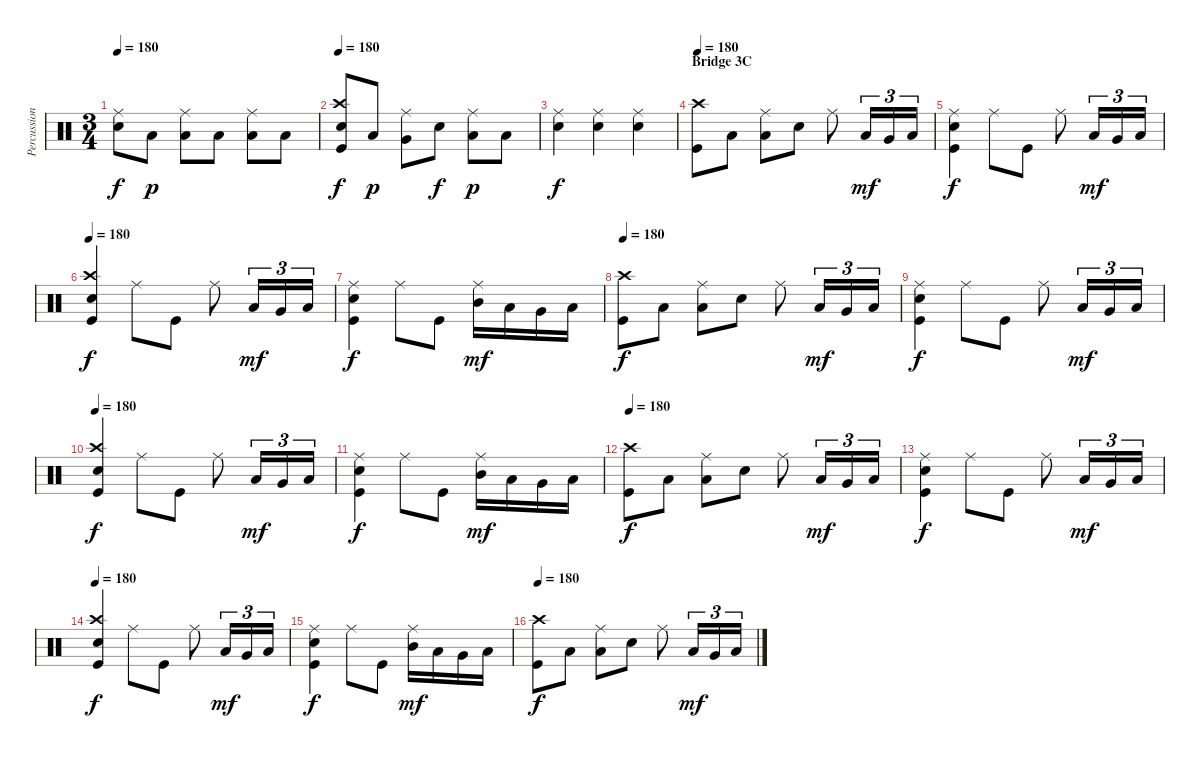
\track ("Percussion" "Percussion") {instrument percussion}
\staff {score}
\articulation defaults
\ts (3 4)
\tempo 180
\clef neutral
\ks c
("Ride (middle)" "Electric Snare (hit)").8{dy f} "Low Tom (hit)".8{dy p} ("Ride (middle)" "Low Floor Tom (hit)").8 "Low Floor Tom (hit)".8 ("Ride (middle)" "Low Floor Tom (hit)").8 "Low Floor Tom (hit)".8 |
\tempo 180
("Crash high (hit)" "Electric Snare (hit)" "Kick (hit)").8{dy f} "Low Tom (hit)".8{dy p} ("Ride (middle)" "Very Low Tom (hit)").8 "Electric Snare (hit)".8{dy f} ("Ride (middle)" "Low Floor Tom (hit)").8{dy p} "Low Floor Tom (hit)".8 |
("Ride (middle)" "Electric Snare (hit)").4{dy f} ("Ride (middle)" "Electric Snare (hit)").4 ("Ride (middle)" "Electric Snare (hit)").4 |
\section ("" "Bridge 3C")
\tempo 180
("Crash high (hit)" "Kick (hit)").8 "Low Floor Tom (hit)".8 ("Ride (middle)" "Low Floor Tom (hit)").8 "Electric Snare (hit)".8 "Ride (middle)".8 "Low Tom (hit)".16{tu (3 2) dy mf} "Very Low Tom (hit)".16{tu (3 2)} "Low Floor Tom (hit)".16{tu (3 2)} |
("Ride (middle)" "Electric Snare (hit)" "Kick (hit)").4{dy f} "Ride (middle)".8 "Kick (hit)".8 "Ride (middle)".8 "Low Tom (hit)".16{tu (3 2) dy mf} "Very Low Tom (hit)".16{tu (3 2)} "Low Floor Tom (hit)".16{tu (3 2)} |
\tempo 180
("Crash high (hit)" "Electric Snare (hit)" "Kick (hit)").4{dy f} "Ride (middle)".8 "Kick (hit)".8 "Ride (middle)".8 "Low Tom (hit)".16{tu (3 2) dy mf} "Very Low Tom (hit)".16{tu (3 2)} "Low Floor Tom (hit)".16{tu (3 2)} |
("Ride (middle)" "Electric Snare (hit)" "Kick (hit)").4{dy f} "Ride (middle)".8 "Kick (hit)".8 ("Ride (middle)" "Mid Tom (hit)").16{dy mf} "Low Tom (hit)".16 "Very Low Tom (hit)".16 "Low Floor Tom (hit)".16 |
\tempo 180
("Crash high (hit)" "Kick (hit)").8{dy f} "Low Floor Tom (hit)".8 ("Ride (middle)" "Low Floor Tom (hit)").8 "Electric Snare (hit)".8 "Ride (middle)".8 "Low Tom (hit)".16{tu (3 2) dy mf} "Very Low Tom (hit)".16{tu (3 2)} "Low Floor Tom (hit)".16{tu (3 2)} |
("Ride (middle)" "Electric Snare (hit)" "Kick (hit)").4{dy f} "Ride (middle)".8 "Kick (hit)".8 "Ride (middle)".8 "Low Tom (hit)".16{tu (3 2) dy mf} "Very Low Tom (hit)".16{tu (3 2)} "Low Floor Tom (hit)".16{tu (3 2)} |
\tempo 180
("Crash high (hit)" "Electric Snare (hit)" "Kick (hit)").4{dy f} "Ride (middle)".8 "Kick (hit)".8 "Ride (middle)".8 "Low Tom (hit)".16{tu (3 2) dy mf} "Very Low Tom (hit)".16{tu (3 2)} "Low Floor Tom (hit)".16{tu (3 2)} |
("Ride (middle)" "Electric Snare (hit)" "Kick (hit)").4{dy f} "Ride (middle)".8 "Kick (hit)".8 ("Ride (middle)" "Mid Tom (hit)").16{dy mf} "Low Tom (hit)".16 "Very Low Tom (hit)".16 "Low Floor Tom (hit)".16 |
\tempo 180
("Crash high (hit)" "Kick (hit)").8{dy f} "Low Floor Tom (hit)".8 ("Ride (middle)" "Low Floor Tom (hit)").8 "Electric Snare (hit)".8 "Ride (middle)".8 "Low Tom (hit)".16{tu (3 2) dy mf} "Very Low Tom (hit)".16{tu (3 2)} "Low Floor Tom (hit)".16{tu (3 2)} |
("Ride (middle)" "Electric Snare (hit)" "Kick (hit)").4{dy f} "Ride (middle)".8 "Kick (hit)".8 "Ride (middle)".8 "Low Tom (hit)".16{tu (3 2) dy mf} "Very Low Tom (hit)".16{tu (3 2)} "Low Floor Tom (hit)".16{tu (3 2)} |
\tempo 180
("Crash high (hit)" "Electric Snare (hit)" "Kick (hit)").4{dy f} "Ride (middle)".8 "Kick (hit)".8 "Ride (middle)".8 "Low Tom (hit)".16{tu (3 2) dy mf} "Very Low Tom (hit)".16{tu (3 2)} "Low Floor Tom (hit)".16{tu (3 2)} |
("Ride (middle)" "Electric Snare (hit)" "Kick (hit)").4{dy f} "Ride (middle)".8 "Kick (hit)".8 ("Ride (middle)" "Mid Tom (hit)").16{dy mf} "Low Tom (hit)".16 "Very Low Tom (hit)".16 "Low Floor Tom (hit)".16 |
\tempo 180
("Crash high (hit)" "Kick (hit)").8{dy f} "Low Floor Tom (hit)".8 ("Ride (middle)" "Low Floor Tom (hit)").8 "Electric Snare (hit)".8 "Ride (middle)".8 "Low Tom (hit)".16{tu (3 2) dy mf} "Very Low Tom (hit)".16{tu (3 2)} "Low Floor Tom (hit)".16{tu (3 2)}
